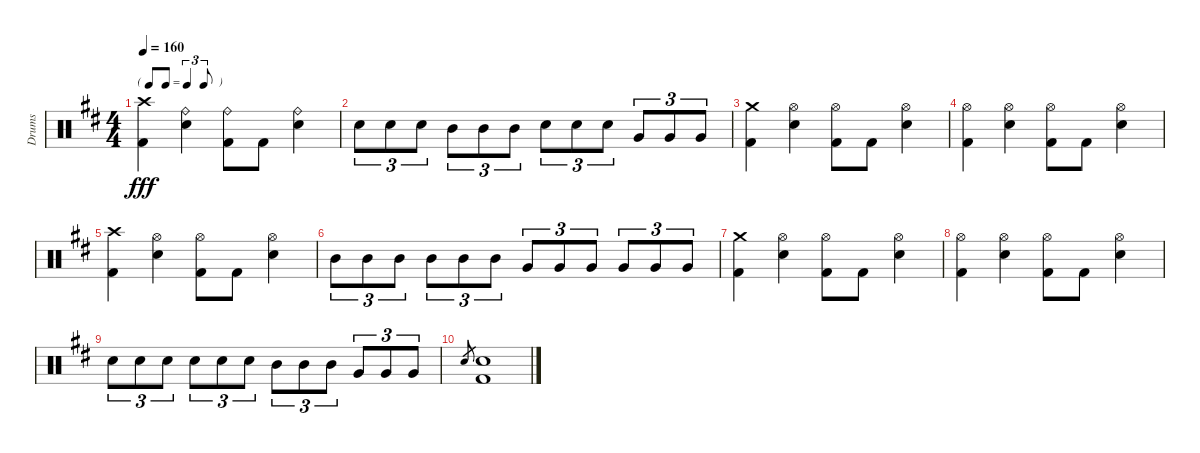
\track ("Drums" "Drums") {instrument percussion}
\staff {score}
\articulation defaults
\ts (4 4)
\tf triplet8th
\tempo 160
\clef neutral
\ks d
("Crash high (hit)" "Kick (hit) 2").4{dy fff} ("Ride (bell)" "Electric Snare (hit)").4 ("Ride (bell)" "Kick (hit) 2").8 "Kick (hit) 2".8 ("Ride (bell)" "Electric Snare (hit)").4 |
"Electric Snare (hit)".8{tu (3 2)} "Electric Snare (hit)".8{tu (3 2)} "Electric Snare (hit)".8{tu (3 2)} "Mid Tom (hit)".8{tu (3 2)} "Mid Tom (hit)".8{tu (3 2)} "Mid Tom (hit)".8{tu (3 2)} "Electric Snare (hit)".8{tu (3 2)} "Electric Snare (hit)".8{tu (3 2)} "Electric Snare (hit)".8{tu (3 2)} "Very Low Tom (hit)".8{tu (3 2)} "Very Low Tom (hit)".8{tu (3 2)} "Very Low Tom (hit)".8{tu (3 2)} |
("Crash medium (hit)" "Kick (hit) 2").4 ("Hi-Hat (open)" "Electric Snare (hit)").4 ("Hi-Hat (open)" "Kick (hit) 2").8 "Kick (hit) 2".8 ("Hi-Hat (open)" "Electric Snare (hit)").4 |
("Hi-Hat (open)" "Kick (hit) 2").4 ("Hi-Hat (open)" "Electric Snare (hit)").4 ("Hi-Hat (open)" "Kick (hit) 2").8 "Kick (hit) 2".8 ("Hi-Hat (open)" "Electric Snare (hit)").4 |
("Crash high (hit)" "Kick (hit) 2").4 ("Hi-Hat (open)" "Electric Snare (hit)").4 ("Hi-Hat (open)" "Kick (hit) 2").8 "Kick (hit) 2".8 ("Hi-Hat (open)" "Electric Snare (hit)").4 |
"Mid Tom (hit)".8{tu (3 2)} "Mid Tom (hit)".8{tu (3 2)} "Mid Tom (hit)".8{tu (3 2)} "Mid Tom (hit)".8{tu (3 2)} "Mid Tom (hit)".8{tu (3 2)} "Mid Tom (hit)".8{tu (3 2)} "Very Low Tom (hit)".8{tu (3 2)} "Very Low Tom (hit)".8{tu (3 2)} "Very Low Tom (hit)".8{tu (3 2)} "Very Low Tom (hit)".8{tu (3 2)} "Very Low Tom (hit)".8{tu (3 2)} "Very Low Tom (hit)".8{tu (3 2)} |
("Crash medium (hit)" "Kick (hit) 2").4 ("Hi-Hat (open)" "Electric Snare (hit)").4 ("Hi-Hat (open)" "Kick (hit) 2").8 "Kick (hit) 2".8 ("Hi-Hat (open)" "Electric Snare (hit)").4 |
("Hi-Hat (open)" "Kick (hit) 2").4 ("Hi-Hat (open)" "Electric Snare (hit)").4 ("Hi-Hat (open)" "Kick (hit) 2").8 "Kick (hit) 2".8 ("Hi-Hat (open)" "Electric Snare (hit)").4 |
"Electric Snare (hit)".8{tu (3 2)} "Electric Snare (hit)".8{tu (3 2)} "Electric Snare (hit)".8{tu (3 2)} "Electric Snare (hit)".8{tu (3 2)} "Electric Snare (hit)".8{tu (3 2)} "Electric Snare (hit)".8{tu (3 2)} "Mid Tom (hit)".8{tu (3 2)} "Mid Tom (hit)".8{tu (3 2)} "Mid Tom (hit)".8{tu (3 2)} "Very Low Tom (hit)".8{tu (3 2)} "Very Low Tom (hit)".8{tu (3 2)} "Very Low Tom (hit)".8{tu (3 2)} |
"Electric Snare (hit)".8{gr} ("Electric Snare (hit)" "Kick (hit) 2").1
